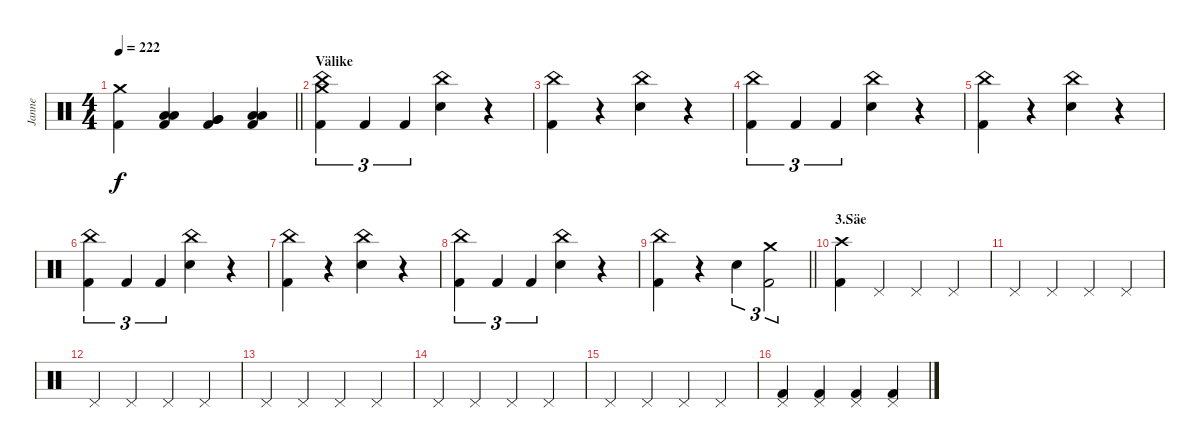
\track ("Janne" "Janne") {instrument percussion}
\staff {score}
\articulation defaults
\ts (4 4)
\tempo 222
\clef neutral
\barLineRight lightlight
\ks c
("Crash medium (hit)" "Kick (hit) 2").4{dy f} ("Low Tom (hit)" "Low Tom (hit)" "Kick (hit) 2").4 ("Very Low Tom (hit)" "Very Low Tom (hit)" "Kick (hit) 2").4 ("Low Floor Tom (hit)" "Low Floor Tom (hit)" "Kick (hit) 2").4 |
\section ("" "Välike")
("China (hit)" "Crash medium (hit)" "Kick (hit) 2").4{tu (3 2)} "Kick (hit) 2".4{tu (3 2)} "Kick (hit) 2".4{tu (3 2)} ("China (hit)" "Electric Snare (hit)").4 r.4 |
("China (hit)" "Kick (hit) 2").4 r.4 ("China (hit)" "Electric Snare (hit)").4 r.4 |
("China (hit)" "Kick (hit) 2").4{tu (3 2)} "Kick (hit) 2".4{tu (3 2)} "Kick (hit) 2".4{tu (3 2)} ("China (hit)" "Electric Snare (hit)").4 r.4 |
("China (hit)" "Kick (hit) 2").4 r.4 ("China (hit)" "Electric Snare (hit)").4 r.4 |
("China (hit)" "Kick (hit) 2").4{tu (3 2)} "Kick (hit) 2".4{tu (3 2)} "Kick (hit) 2".4{tu (3 2)} ("China (hit)" "Electric Snare (hit)").4 r.4 |
("China (hit)" "Kick (hit) 2").4 r.4 ("China (hit)" "Electric Snare (hit)").4 r.4 |
("China (hit)" "Kick (hit) 2").4{tu (3 2)} "Kick (hit) 2".4{tu (3 2)} "Kick (hit) 2".4{tu (3 2)} ("China (hit)" "Electric Snare (hit)").4 r.4 |
\barLineRight lightlight
("China (hit)" "Kick (hit) 2").4 r.4 "Electric Snare (hit)".4{tu (3 2)} ("Crash medium (hit)" "Kick (hit) 2").2{tu (3 2)} |
\section ("" "3.Säe")
("Crash high (hit)" "Kick (hit) 2").4 "Pedal Hi-Hat (hit)".4 "Pedal Hi-Hat (hit)".4 "Pedal Hi-Hat (hit)".4 |
"Pedal Hi-Hat (hit)".4 "Pedal Hi-Hat (hit)".4 "Pedal Hi-Hat (hit)".4 "Pedal Hi-Hat (hit)".4 |
"Pedal Hi-Hat (hit)".4 "Pedal Hi-Hat (hit)".4 "Pedal Hi-Hat (hit)".4 "Pedal Hi-Hat (hit)".4 |
"Pedal Hi-Hat (hit)".4 "Pedal Hi-Hat (hit)".4 "Pedal Hi-Hat (hit)".4 "Pedal Hi-Hat (hit)".4 |
"Pedal Hi-Hat (hit)".4 "Pedal Hi-Hat (hit)".4 "Pedal Hi-Hat (hit)".4 "Pedal Hi-Hat (hit)".4 |
"Pedal Hi-Hat (hit)".4 "Pedal Hi-Hat (hit)".4 "Pedal Hi-Hat (hit)".4 "Pedal Hi-Hat (hit)".4 |
("Pedal Hi-Hat (hit)" "Kick (hit) 2").4 ("Pedal Hi-Hat (hit)" "Kick (hit) 2").4 ("Pedal Hi-Hat (hit)" "Kick (hit) 2").4 ("Pedal Hi-Hat (hit)" "Kick (hit) 2").4
